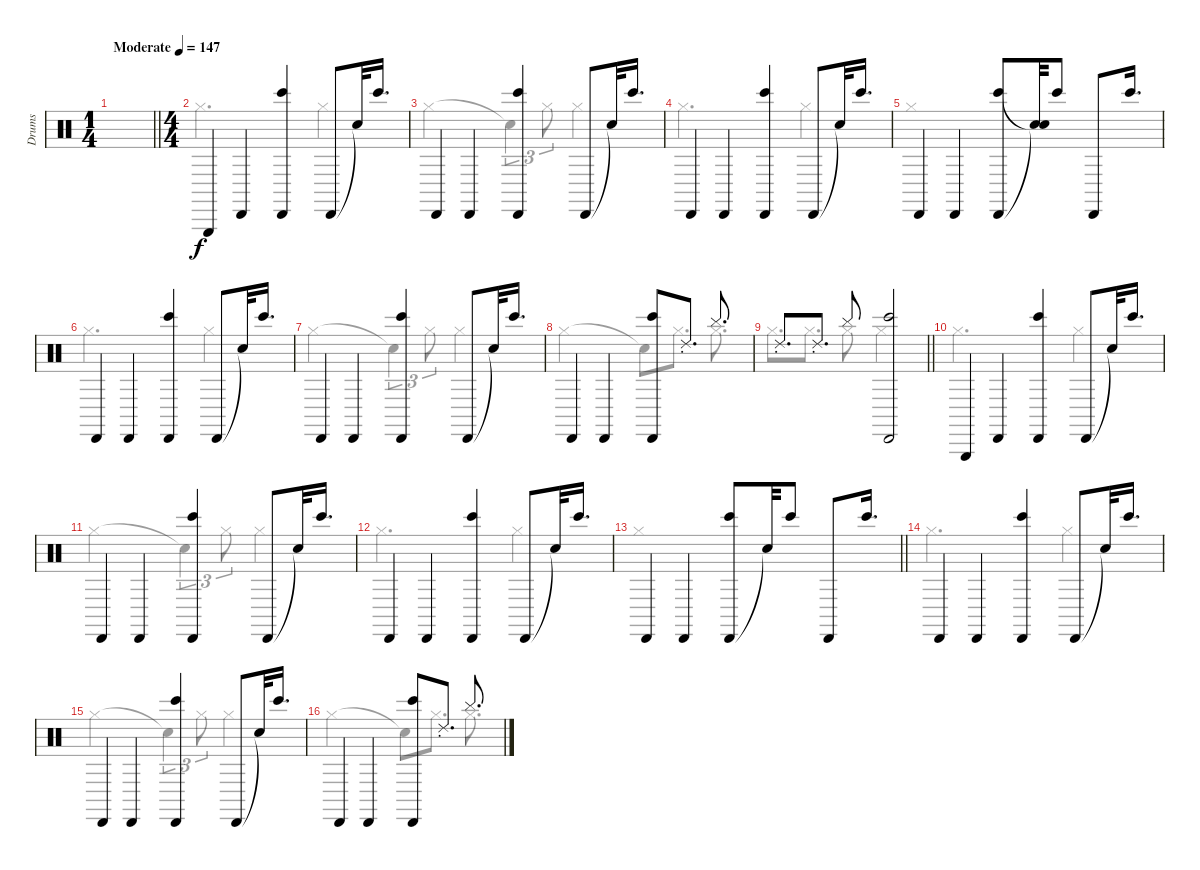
\track ("Drums" "Drums") {instrument percussion}
\staff
\articulation defaults
\voice
\ts (1 4)
\tempo (147 "Moderate")
\clef neutral
\barLineRight lightlight
\ks c
|
\ts (4 4)
"Triangle (hit)".4{volume 7} "Cabasa (hit)".4 ("Cabasa (hit)" "Bongo High (hit)").4 "Cabasa (hit)".8 "Snare (hit)"{t}.32 "Bongo High (hit)".16{d} |
"Cabasa (hit)".4 "Cabasa (hit)".4 ("Cabasa (hit)" "Bongo High (hit)").4 "Cabasa (hit)".8 "Snare (hit)"{t}.32 "Bongo High (hit)".16{d} |
"Cabasa (hit)".4 "Cabasa (hit)".4 ("Cabasa (hit)" "Bongo High (hit)").4 "Cabasa (hit)".8 "Snare (hit)"{t}.32 "Bongo High (hit)".16{d} |
"Cabasa (hit)".4 "Cabasa (hit)".4 ("Cabasa (hit)" "Bongo High (hit)").8 ("Snare (hit)"{t} "Snare (hit)"{t}).32 "Bongo High (hit)".8 "Cabasa (hit)".8 "Bongo High (hit)".16{d} |
"Cabasa (hit)".4 "Cabasa (hit)".4 ("Cabasa (hit)" "Bongo High (hit)").4 "Cabasa (hit)".8 "Snare (hit)"{t}.32 "Bongo High (hit)".16{d} |
"Cabasa (hit)".4 "Cabasa (hit)".4 ("Cabasa (hit)" "Bongo High (hit)").4 "Cabasa (hit)".8 "Snare (hit)"{t}.32 "Bongo High (hit)".16{d} |
"Cabasa (hit)".4 "Cabasa (hit)".4 ("Cabasa (hit)" "Bongo High (hit)").8 "Ride (choke) 2".8{d} "Cymbal (hit)".8{d} |
\barLineRight lightlight "Ride (choke) 2".8{d} "Ride (choke) 2".8{d} "Cymbal (hit)".8
("Cabasa (hit)" "Bongo High (hit)").2 |
"Triangle (hit)".4 "Cabasa (hit)".4 ("Cabasa (hit)" "Bongo High (hit)").4 "Cabasa (hit)".8 "Snare (hit)"{t}.32 "Bongo High (hit)".16{d} |
"Cabasa (hit)".4 "Cabasa (hit)".4 ("Cabasa (hit)" "Bongo High (hit)").4 "Cabasa (hit)".8 "Snare (hit)"{t}.32 "Bongo High (hit)".16{d} |
"Cabasa (hit)".4 "Cabasa (hit)".4 ("Cabasa (hit)" "Bongo High (hit)").4 "Cabasa (hit)".8 "Snare (hit)"{t}.32 "Bongo High (hit)".16{d} |
\barLineRight lightlight "Cabasa (hit)".4 "Cabasa (hit)".4
("Cabasa (hit)" "Bongo High (hit)").8 "Snare (hit)"{t}.32 "Bongo High (hit)".8 "Cabasa (hit)".8 "Bongo High (hit)".16{d} |
"Cabasa (hit)".4 "Cabasa (hit)".4 ("Cabasa (hit)" "Bongo High (hit)").4 "Cabasa (hit)".8 "Snare (hit)"{t}.32 "Bongo High (hit)".16{d} |
"Cabasa (hit)".4 "Cabasa (hit)".4 ("Cabasa (hit)" "Bongo High (hit)").4 "Cabasa (hit)".8 "Snare (hit)"{t}.32 "Bongo High (hit)".16{d} |
"Cabasa (hit)".4 "Cabasa (hit)".4 ("Cabasa (hit)" "Bongo High (hit)").8 "Ride (choke) 2".8{d} "Cymbal (hit)".8{d}
\voice
\clef neutral
\ottava regular
\simile none
\barLineRight lightlight
\ks c
|
"Hi-Hat (closed)".2{d} "Hi-Hat (closed)".4 |
"Hi-Hat (closed)".2 "Snare (hit)"{t}.4{tu (3 2)} "Hi-Hat (closed)".8{tu (3 2)} "Hi-Hat (closed)".4 |
"Hi-Hat (closed)".2{d} "Hi-Hat (closed)".4 |
"Hi-Hat (closed)".1 |
"Hi-Hat (closed)".2{d} "Hi-Hat (closed)".4 |
"Hi-Hat (closed)".2 "Snare (hit)"{t}.4{tu (3 2)} "Hi-Hat (closed)".8{tu (3 2)} "Hi-Hat (closed)".4 |
"Hi-Hat (closed)".2 "Snare (hit)"{t}.8 "Hi-Hat (closed)".8{d} "Hi-Hat (closed)".8{d} |
\barLineRight lightlight "Hi-Hat (closed)".8{d} "Hi-Hat (closed)".8{d} "Hi-Hat (closed)".8 "Hi-Hat (closed)".2
|
"Hi-Hat (closed)".2{d} "Hi-Hat (closed)".4 |
"Hi-Hat (closed)".2 "Snare (hit)"{t}.4{tu (3 2)} "Hi-Hat (closed)".8{tu (3 2)} "Hi-Hat (closed)".4 |
"Hi-Hat (closed)".2{d} "Hi-Hat (closed)".4 |
\barLineRight lightlight "Hi-Hat (closed)".1
|
"Hi-Hat (closed)".2{d} "Hi-Hat (closed)".4 |
"Hi-Hat (closed)".2 "Snare (hit)"{t}.4{tu (3 2)} "Hi-Hat (closed)".8{tu (3 2)} "Hi-Hat (closed)".4 |
"Hi-Hat (closed)".2 "Snare (hit)"{t}.8 "Hi-Hat (closed)".8{d} "Hi-Hat (closed)".8{d}
